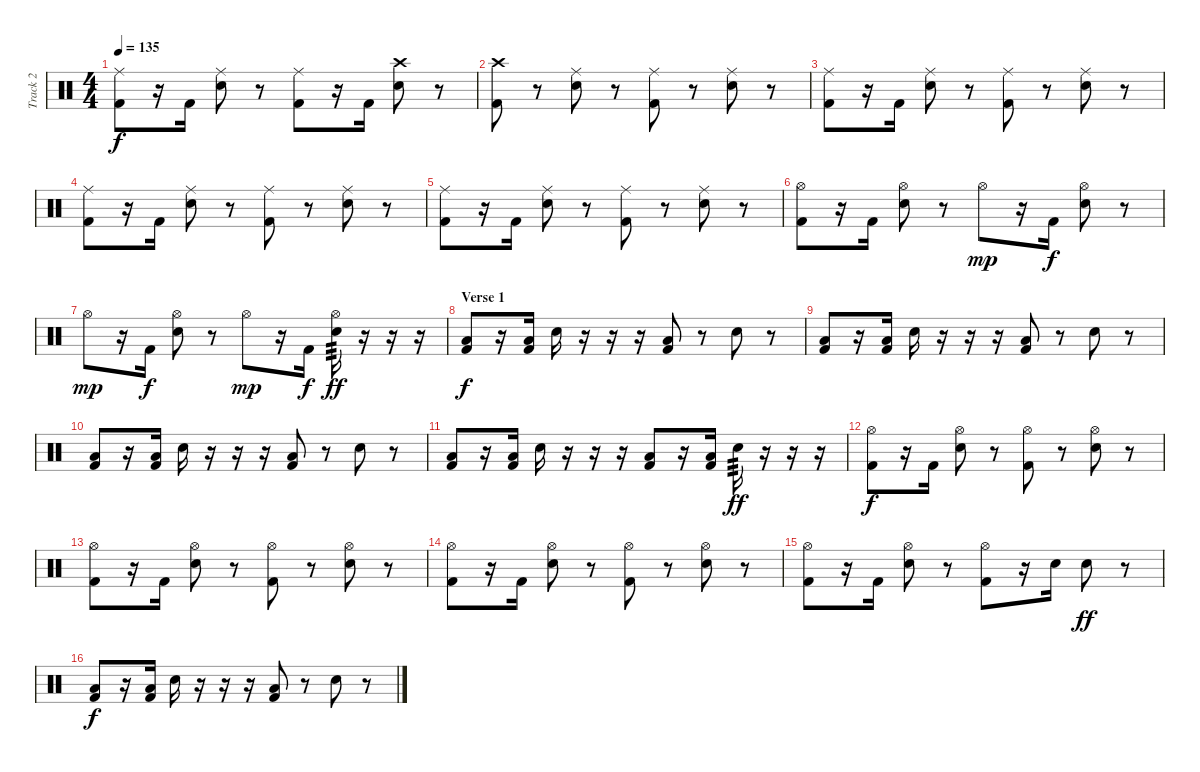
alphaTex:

\track ("Track 2" "Track 2") {instrument percussion}
\staff {score}
\articulation defaults
\ts (4 4)
\tempo 135
\clef neutral
\ks c
("Ride (middle)" "Kick (hit) 2").8{dy f} r.16 "Kick (hit) 2".16 ("Ride (middle)" "Electric Snare (hit)").8 r.8 ("Ride (middle)" "Kick (hit) 2").8 r.16 "Kick (hit) 2".16 ("Crash high (hit)" "Electric Snare (hit)").8 r.8 |
("Crash high (hit)" "Kick (hit) 2").8 r.8 ("Ride (middle)" "Electric Snare (hit)").8 r.8 ("Ride (middle)" "Kick (hit) 2").8 r.8 ("Ride (middle)" "Electric Snare (hit)").8 r.8 |
("Ride (middle)" "Kick (hit) 2").8 r.16 "Kick (hit) 2".16 ("Ride (middle)" "Electric Snare (hit)").8 r.8 ("Ride (middle)" "Kick (hit) 2").8 r.8 ("Ride (middle)" "Electric Snare (hit)").8 r.8 |
("Ride (middle)" "Kick (hit) 2").8 r.16 "Kick (hit) 2".16 ("Ride (middle)" "Electric Snare (hit)").8 r.8 ("Ride (middle)" "Kick (hit) 2").8 r.8 ("Ride (middle)" "Electric Snare (hit)").8 r.8 |
("Ride (middle)" "Kick (hit) 2").8 r.16 "Kick (hit) 2".16 ("Ride (middle)" "Electric Snare (hit)").8 r.8 ("Ride (middle)" "Kick (hit) 2").8 r.8 ("Ride (middle)" "Electric Snare (hit)").8 r.8 |
\section ("" "")
("Hi-Hat (open)" "Kick (hit) 2").8 r.16 "Kick (hit) 2".16 ("Hi-Hat (open)" "Electric Snare (hit)").8 r.8 "Hi-Hat (open)".8{dy mp} r.16 "Kick (hit) 2".16{dy f} ("Hi-Hat (open)" "Electric Snare (hit)").8 r.8 |
"Hi-Hat (open)".8{dy mp} r.16 "Kick (hit) 2".16{dy f} ("Hi-Hat (open)" "Electric Snare (hit)").8 r.8 "Hi-Hat (open)".8{dy mp} r.16 "Kick (hit) 2".16{dy f} ("Hi-Hat (open)" "Electric Snare (hit)").16{tp 3 dy ff} r.16 r.16 r.16 |
\section ("" "Verse 1")
("Low Floor Tom (hit)" "Kick (hit) 2").8{dy f} r.16 ("Low Floor Tom (hit)" "Kick (hit) 2").16 "Electric Snare (hit)".16 r.16 r.16 r.16 ("Low Floor Tom (hit)" "Kick (hit) 2").8 r.8 "Electric Snare (hit)".8 r.8 |
("Low Floor Tom (hit)" "Kick (hit) 2").8 r.16 ("Low Floor Tom (hit)" "Kick (hit) 2").16 "Electric Snare (hit)".16 r.16 r.16 r.16 ("Low Floor Tom (hit)" "Kick (hit) 2").8 r.8 "Electric Snare (hit)".8 r.8 |
("Low Floor Tom (hit)" "Kick (hit) 2").8 r.16 ("Low Floor Tom (hit)" "Kick (hit) 2").16 "Electric Snare (hit)".16 r.16 r.16 r.16 ("Low Floor Tom (hit)" "Kick (hit) 2").8 r.8 "Electric Snare (hit)".8 r.8 |
("Low Floor Tom (hit)" "Kick (hit) 2").8 r.16 ("Low Floor Tom (hit)" "Kick (hit) 2").16 "Electric Snare (hit)".16 r.16 r.16 r.16 ("Low Floor Tom (hit)" "Kick (hit) 2").8 r.16 ("Low Floor Tom (hit)" "Kick (hit) 2").16 "Electric Snare (hit)".16{tp 3 dy ff} r.16 r.16 r.16 |
("Hi-Hat (open)" "Kick (hit) 2").8{dy f} r.16 "Kick (hit) 2".16 ("Hi-Hat (open)" "Electric Snare (hit)").8 r.8 ("Hi-Hat (open)" "Kick (hit) 2").8 r.8 ("Hi-Hat (open)" "Electric Snare (hit)").8 r.8 |
("Hi-Hat (open)" "Kick (hit) 2").8 r.16 "Kick (hit) 2".16 ("Hi-Hat (open)" "Electric Snare (hit)").8 r.8 ("Hi-Hat (open)" "Kick (hit) 2").8 r.8 ("Hi-Hat (open)" "Electric Snare (hit)").8 r.8 |
("Hi-Hat (open)" "Kick (hit) 2").8 r.16 "Kick (hit) 2".16 ("Hi-Hat (open)" "Electric Snare (hit)").8 r.8 ("Hi-Hat (open)" "Kick (hit) 2").8 r.8 ("Hi-Hat (open)" "Electric Snare (hit)").8 r.8 |
("Hi-Hat (open)" "Kick (hit) 2").8 r.16 "Kick (hit) 2".16 ("Hi-Hat (open)" "Electric Snare (hit)").8 r.8 ("Hi-Hat (open)" "Kick (hit) 2").8 r.16 "Electric Snare (hit)".16 "Electric Snare (hit)".8{dy ff} r.8 |
("Low Floor Tom (hit)" "Kick (hit) 2").8{dy f} r.16 ("Low Floor Tom (hit)" "Kick (hit) 2").16 "Electric Snare (hit)".16 r.16 r.16 r.16 ("Low Floor Tom (hit)" "Kick (hit) 2").8 r.8 "Electric Snare (hit)".8 r.8
